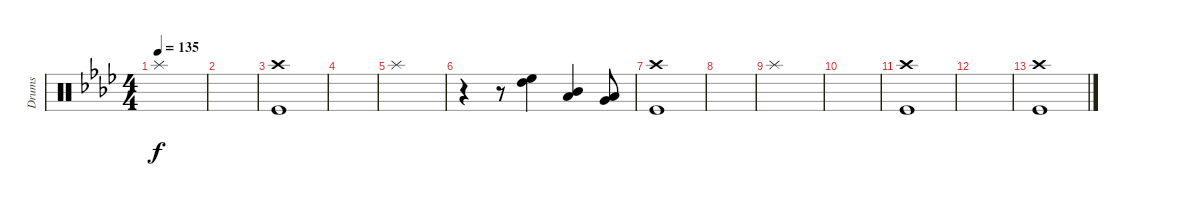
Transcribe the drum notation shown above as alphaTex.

\track ("Drums" "Drums") {instrument percussion}
\staff {score}
\articulation defaults
\ts (4 4)
\tempo 135
\clef neutral
\ks ab "Splash (hit)".1{dy f}
|
|
("Kick (hit)" "Crash high (hit)").1 |
|
"Splash (hit)".1 |
r.4 r.8 ("High Floor Tom (hit)" "High Tom (hit)").4 ("Mid Tom (hit)" "Low Tom (hit)").4 ("Very Low Tom (hit)" "Low Floor Tom (hit)").8 |
("Kick (hit)" "Crash high (hit)").1 |
|
"Splash (hit)".1 |
|
("Kick (hit)" "Crash high (hit)").1 |
|
("Kick (hit)" "Crash high (hit)").1
